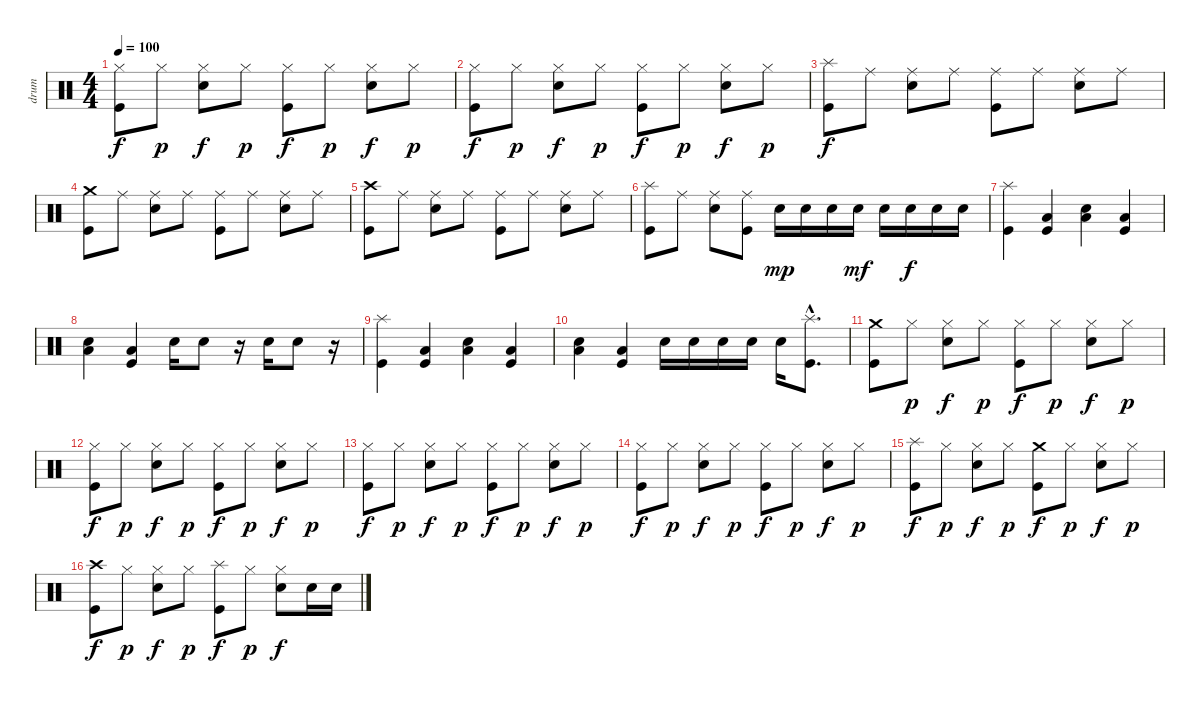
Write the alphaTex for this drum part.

\track ("drum" "drum") {instrument percussion}
\staff {score}
\articulation defaults
\ts (4 4)
\tempo 100
\clef neutral
\ks c
("Kick (hit)" "Hi-Hat (closed)").8{dy f} "Hi-Hat (closed)".8{dy p} ("Electric Snare (hit)" "Hi-Hat (closed)").8{dy f} "Hi-Hat (closed)".8{dy p} ("Kick (hit)" "Hi-Hat (closed)").8{dy f} "Hi-Hat (closed)".8{dy p} ("Electric Snare (hit)" "Hi-Hat (closed)").8{dy f} "Hi-Hat (closed)".8{dy p} |
("Kick (hit)" "Hi-Hat (closed)").8{dy f} "Hi-Hat (closed)".8{dy p} ("Electric Snare (hit)" "Hi-Hat (closed)").8{dy f} "Hi-Hat (closed)".8{dy p} ("Kick (hit)" "Hi-Hat (closed)").8{dy f} "Hi-Hat (closed)".8{dy p} ("Electric Snare (hit)" "Hi-Hat (closed)").8{dy f} "Hi-Hat (closed)".8{dy p} |
("Kick (hit)" "Splash (hit)").8{dy f} "Ride (middle)".8 ("Electric Snare (hit)" "Ride (middle)").8 "Ride (middle)".8 ("Kick (hit)" "Ride (middle)").8 "Ride (middle)".8 ("Electric Snare (hit)" "Ride (middle)").8 "Ride (middle)".8 |
("Kick (hit)" "Crash medium (hit)").8 "Ride (middle)".8 ("Electric Snare (hit)" "Ride (middle)").8 "Ride (middle)".8 ("Kick (hit)" "Ride (middle)").8 "Ride (middle)".8 ("Electric Snare (hit)" "Ride (middle)").8 "Ride (middle)".8 |
("Kick (hit)" "Crash high (hit)").8 "Ride (middle)".8 ("Electric Snare (hit)" "Ride (middle)").8 "Ride (middle)".8 ("Kick (hit)" "Ride (middle)").8 "Ride (middle)".8 ("Electric Snare (hit)" "Ride (middle)").8 "Ride (middle)".8 |
("Kick (hit)" "Splash (hit)").8 "Ride (middle)".8 ("Electric Snare (hit)" "Ride (middle)").8 ("Kick (hit)" "Ride (middle)").8 "Electric Snare (hit)".16{dy mp} "Electric Snare (hit)".16 "Electric Snare (hit)".16 "Electric Snare (hit)".16{dy mf} "Electric Snare (hit)".16 "Electric Snare (hit)".16{dy f} "Electric Snare (hit)".16 "Electric Snare (hit)".16 |
("Kick (hit)" "Splash (hit)").4 ("Kick (hit)" "Low Floor Tom (hit)").4 ("Electric Snare (hit)" "Low Floor Tom (hit)").4 ("Kick (hit)" "Low Floor Tom (hit)").4 |
("Electric Snare (hit)" "Low Floor Tom (hit)").4 ("Kick (hit)" "Low Floor Tom (hit)").4 "Electric Snare (hit)".16 "Electric Snare (hit)".8 r.16 "Electric Snare (hit)".16 "Electric Snare (hit)".8 r.16 |
("Kick (hit)" "Splash (hit)").4 ("Kick (hit)" "Low Floor Tom (hit)").4 ("Electric Snare (hit)" "Low Floor Tom (hit)").4 ("Kick (hit)" "Low Floor Tom (hit)").4 |
("Electric Snare (hit)" "Low Floor Tom (hit)").4 ("Kick (hit)" "Low Floor Tom (hit)").4 "Electric Snare (hit)".16 "Electric Snare (hit)".16 "Electric Snare (hit)".16 "Electric Snare (hit)".16 "Electric Snare (hit)".16 ("Kick (hit)"{hac} "Splash (hit)"{hac}).8{d} |
("Kick (hit)" "Crash medium (hit)").8 "Hi-Hat (closed)".8{dy p} ("Electric Snare (hit)" "Hi-Hat (closed)").8{dy f} "Hi-Hat (closed)".8{dy p} ("Kick (hit)" "Hi-Hat (closed)").8{dy f} "Hi-Hat (closed)".8{dy p} ("Electric Snare (hit)" "Hi-Hat (closed)").8{dy f} "Hi-Hat (closed)".8{dy p} |
("Kick (hit)" "Hi-Hat (closed)").8{dy f} "Hi-Hat (closed)".8{dy p} ("Electric Snare (hit)" "Hi-Hat (closed)").8{dy f} "Hi-Hat (closed)".8{dy p} ("Kick (hit)" "Hi-Hat (closed)").8{dy f} "Hi-Hat (closed)".8{dy p} ("Electric Snare (hit)" "Hi-Hat (closed)").8{dy f} "Hi-Hat (closed)".8{dy p} |
("Kick (hit)" "Hi-Hat (closed)").8{dy f} "Hi-Hat (closed)".8{dy p} ("Electric Snare (hit)" "Hi-Hat (closed)").8{dy f} "Hi-Hat (closed)".8{dy p} ("Kick (hit)" "Hi-Hat (closed)").8{dy f} "Hi-Hat (closed)".8{dy p} ("Electric Snare (hit)" "Hi-Hat (closed)").8{dy f} "Hi-Hat (closed)".8{dy p} |
("Kick (hit)" "Hi-Hat (closed)").8{dy f} "Hi-Hat (closed)".8{dy p} ("Electric Snare (hit)" "Hi-Hat (closed)").8{dy f} "Hi-Hat (closed)".8{dy p} ("Kick (hit)" "Hi-Hat (closed)").8{dy f} "Hi-Hat (closed)".8{dy p} ("Electric Snare (hit)" "Hi-Hat (closed)").8{dy f} "Hi-Hat (closed)".8{dy p} |
("Kick (hit)" "Splash (hit)").8{dy f} "Hi-Hat (closed)".8{dy p} ("Electric Snare (hit)" "Hi-Hat (closed)").8{dy f} "Hi-Hat (closed)".8{dy p} ("Kick (hit)" "Crash medium (hit)").8{dy f} "Hi-Hat (closed)".8{dy p} ("Electric Snare (hit)" "Hi-Hat (closed)").8{dy f} "Hi-Hat (closed)".8{dy p} |
("Kick (hit)" "Crash high (hit)").8{dy f} "Hi-Hat (closed)".8{dy p} ("Electric Snare (hit)" "Hi-Hat (closed)").8{dy f} "Hi-Hat (closed)".8{dy p} ("Kick (hit)" "Splash (hit)").8{dy f} "Hi-Hat (closed)".8{dy p} ("Electric Snare (hit)" "Hi-Hat (closed)").8{dy f} "Electric Snare (hit)".16 "Electric Snare (hit)".16
